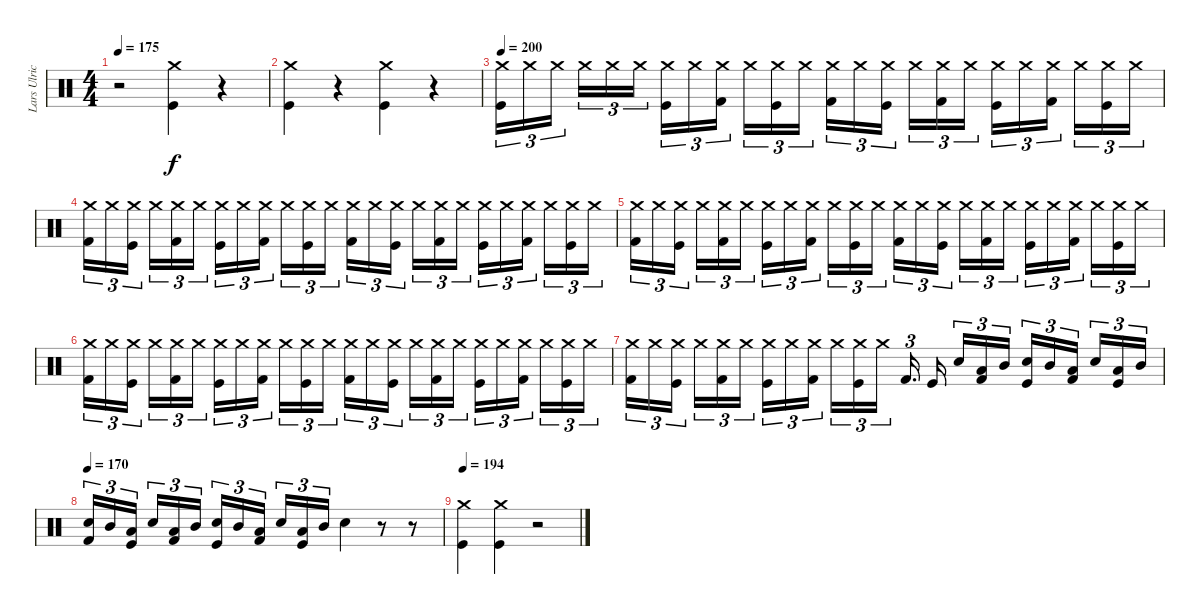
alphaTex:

\track ("Lars Ulrich (Drums)" "Lars Ulric") {instrument percussion}
\staff {score}
\articulation defaults
\ts (4 4)
\tempo 175
\clef neutral
\ks c
r.2{dy f} ("Kick (hit)" "Crash medium (hit)").4 r.4 |
("Crash medium (hit)" "Kick (hit)").4 r.4 ("Kick (hit)" "Crash medium (hit)").4 r.4 |
\tempo 200
("Kick (hit)" "Crash medium (hit)").16{tu (3 2)} "Crash medium (hit)".16{tu (3 2)} "Crash medium (hit)".16{tu (3 2) beam splitsecondary} "Crash medium (hit)".16{tu (3 2)} "Crash medium (hit)".16{tu (3 2)} "Crash medium (hit)".16{tu (3 2)} ("Kick (hit)" "Crash medium (hit)").16{tu (3 2)} "Crash medium (hit)".16{tu (3 2)} ("Kick (hit) 2" "Crash medium (hit)").16{tu (3 2) beam splitsecondary} "Crash medium (hit)".16{tu (3 2)} ("Kick (hit)" "Crash medium (hit)").16{tu (3 2)} "Crash medium (hit)".16{tu (3 2)} ("Kick (hit) 2" "Crash medium (hit)").16{tu (3 2)} "Crash medium (hit)".16{tu (3 2)} ("Kick (hit)" "Crash medium (hit)").16{tu (3 2) beam splitsecondary} "Crash medium (hit)".16{tu (3 2)} ("Kick (hit) 2" "Crash medium (hit)").16{tu (3 2)} "Crash medium (hit)".16{tu (3 2)} ("Kick (hit)" "Crash medium (hit)").16{tu (3 2)} "Crash medium (hit)".16{tu (3 2)} ("Kick (hit) 2" "Crash medium (hit)").16{tu (3 2) beam splitsecondary} "Crash medium (hit)".16{tu (3 2)} ("Kick (hit)" "Crash medium (hit)").16{tu (3 2)} "Crash medium (hit)".16{tu (3 2)} |
("Kick (hit) 2" "Crash medium (hit)").16{tu (3 2)} "Crash medium (hit)".16{tu (3 2)} ("Kick (hit)" "Crash medium (hit)").16{tu (3 2) beam splitsecondary} "Crash medium (hit)".16{tu (3 2)} ("Kick (hit) 2" "Crash medium (hit)").16{tu (3 2)} "Crash medium (hit)".16{tu (3 2)} ("Kick (hit)" "Crash medium (hit)").16{tu (3 2)} "Crash medium (hit)".16{tu (3 2)} ("Kick (hit) 2" "Crash medium (hit)").16{tu (3 2) beam splitsecondary} "Crash medium (hit)".16{tu (3 2)} ("Kick (hit)" "Crash medium (hit)").16{tu (3 2)} "Crash medium (hit)".16{tu (3 2)} ("Kick (hit) 2" "Crash medium (hit)").16{tu (3 2)} "Crash medium (hit)".16{tu (3 2)} ("Kick (hit)" "Crash medium (hit)").16{tu (3 2) beam splitsecondary} "Crash medium (hit)".16{tu (3 2)} ("Kick (hit) 2" "Crash medium (hit)").16{tu (3 2)} "Crash medium (hit)".16{tu (3 2)} ("Kick (hit)" "Crash medium (hit)").16{tu (3 2)} "Crash medium (hit)".16{tu (3 2)} ("Kick (hit) 2" "Crash medium (hit)").16{tu (3 2) beam splitsecondary} "Crash medium (hit)".16{tu (3 2)} ("Kick (hit)" "Crash medium (hit)").16{tu (3 2)} "Crash medium (hit)".16{tu (3 2)} |
("Kick (hit) 2" "Crash medium (hit)").16{tu (3 2)} "Crash medium (hit)".16{tu (3 2)} ("Kick (hit)" "Crash medium (hit)").16{tu (3 2) beam splitsecondary} "Crash medium (hit)".16{tu (3 2)} ("Kick (hit) 2" "Crash medium (hit)").16{tu (3 2)} "Crash medium (hit)".16{tu (3 2)} ("Kick (hit)" "Crash medium (hit)").16{tu (3 2)} "Crash medium (hit)".16{tu (3 2)} ("Kick (hit) 2" "Crash medium (hit)").16{tu (3 2) beam splitsecondary} "Crash medium (hit)".16{tu (3 2)} ("Kick (hit)" "Crash medium (hit)").16{tu (3 2)} "Crash medium (hit)".16{tu (3 2)} ("Kick (hit) 2" "Crash medium (hit)").16{tu (3 2)} "Crash medium (hit)".16{tu (3 2)} ("Kick (hit)" "Crash medium (hit)").16{tu (3 2) beam splitsecondary} "Crash medium (hit)".16{tu (3 2)} ("Kick (hit) 2" "Crash medium (hit)").16{tu (3 2)} "Crash medium (hit)".16{tu (3 2)} ("Kick (hit)" "Crash medium (hit)").16{tu (3 2)} "Crash medium (hit)".16{tu (3 2)} ("Kick (hit) 2" "Crash medium (hit)").16{tu (3 2) beam splitsecondary} "Crash medium (hit)".16{tu (3 2)} ("Kick (hit)" "Crash medium (hit)").16{tu (3 2)} "Crash medium (hit)".16{tu (3 2)} |
("Kick (hit) 2" "Crash medium (hit)").16{tu (3 2)} "Crash medium (hit)".16{tu (3 2)} ("Kick (hit)" "Crash medium (hit)").16{tu (3 2) beam splitsecondary} "Crash medium (hit)".16{tu (3 2)} ("Kick (hit) 2" "Crash medium (hit)").16{tu (3 2)} "Crash medium (hit)".16{tu (3 2)} ("Kick (hit)" "Crash medium (hit)").16{tu (3 2)} "Crash medium (hit)".16{tu (3 2)} ("Kick (hit) 2" "Crash medium (hit)").16{tu (3 2) beam splitsecondary} "Crash medium (hit)".16{tu (3 2)} ("Kick (hit)" "Crash medium (hit)").16{tu (3 2)} "Crash medium (hit)".16{tu (3 2)} ("Kick (hit) 2" "Crash medium (hit)").16{tu (3 2)} "Crash medium (hit)".16{tu (3 2)} ("Kick (hit)" "Crash medium (hit)").16{tu (3 2) beam splitsecondary} "Crash medium (hit)".16{tu (3 2)} ("Kick (hit) 2" "Crash medium (hit)").16{tu (3 2)} "Crash medium (hit)".16{tu (3 2)} ("Kick (hit)" "Crash medium (hit)").16{tu (3 2)} "Crash medium (hit)".16{tu (3 2)} ("Kick (hit) 2" "Crash medium (hit)").16{tu (3 2) beam splitsecondary} "Crash medium (hit)".16{tu (3 2)} ("Kick (hit)" "Crash medium (hit)").16{tu (3 2)} "Crash medium (hit)".16{tu (3 2)} |
("Kick (hit) 2" "Crash medium (hit)").16{tu (3 2)} "Crash medium (hit)".16{tu (3 2)} ("Kick (hit)" "Crash medium (hit)").16{tu (3 2) beam splitsecondary} "Crash medium (hit)".16{tu (3 2)} ("Kick (hit) 2" "Crash medium (hit)").16{tu (3 2)} "Crash medium (hit)".16{tu (3 2)} ("Kick (hit)" "Crash medium (hit)").16{tu (3 2)} "Crash medium (hit)".16{tu (3 2)} ("Kick (hit) 2" "Crash medium (hit)").16{tu (3 2) beam splitsecondary} "Crash medium (hit)".16{tu (3 2)} ("Kick (hit)" "Crash medium (hit)").16{tu (3 2)} "Crash medium (hit)".16{tu (3 2)} "Kick (hit) 2".16{d tu (3 2) beam splitsecondary} "Kick (hit)".16{beam splitsecondary} "Snare (hit) 2".16{tu (3 2)} ("Low Tom (hit)" "Kick (hit) 2").16{tu (3 2)} "Mid Tom (hit)".16{tu (3 2)} ("Snare (hit) 2" "Kick (hit)").16{tu (3 2)} "Mid Tom (hit)".16{tu (3 2)} ("Low Tom (hit)" "Kick (hit) 2").16{tu (3 2) beam splitsecondary} "Snare (hit) 2".16{tu (3 2)} ("Low Tom (hit)" "Kick (hit)").16{tu (3 2)} "Mid Tom (hit)".16{tu (3 2)} |
\tempo 170
("Snare (hit) 2" "Kick (hit) 2").16{tu (3 2)} "Mid Tom (hit)".16{tu (3 2)} ("Low Tom (hit)" "Kick (hit)").16{tu (3 2) beam splitsecondary} "Snare (hit) 2".16{tu (3 2)} ("Low Tom (hit)" "Kick (hit) 2").16{tu (3 2)} "Mid Tom (hit)".16{tu (3 2)} ("Snare (hit) 2" "Kick (hit)").16{tu (3 2)} "Mid Tom (hit)".16{tu (3 2)} ("Low Tom (hit)" "Kick (hit) 2").16{tu (3 2) beam splitsecondary} "Snare (hit) 2".16{tu (3 2)} ("Low Tom (hit)" "Kick (hit)").16{tu (3 2)} "Mid Tom (hit)".16{tu (3 2)} "Snare (hit) 2".4 r.8 r.8 |
\tempo 194
("Kick (hit)" "Crash medium (hit)").4 ("Kick (hit)" "Crash medium (hit)").4 r.2
